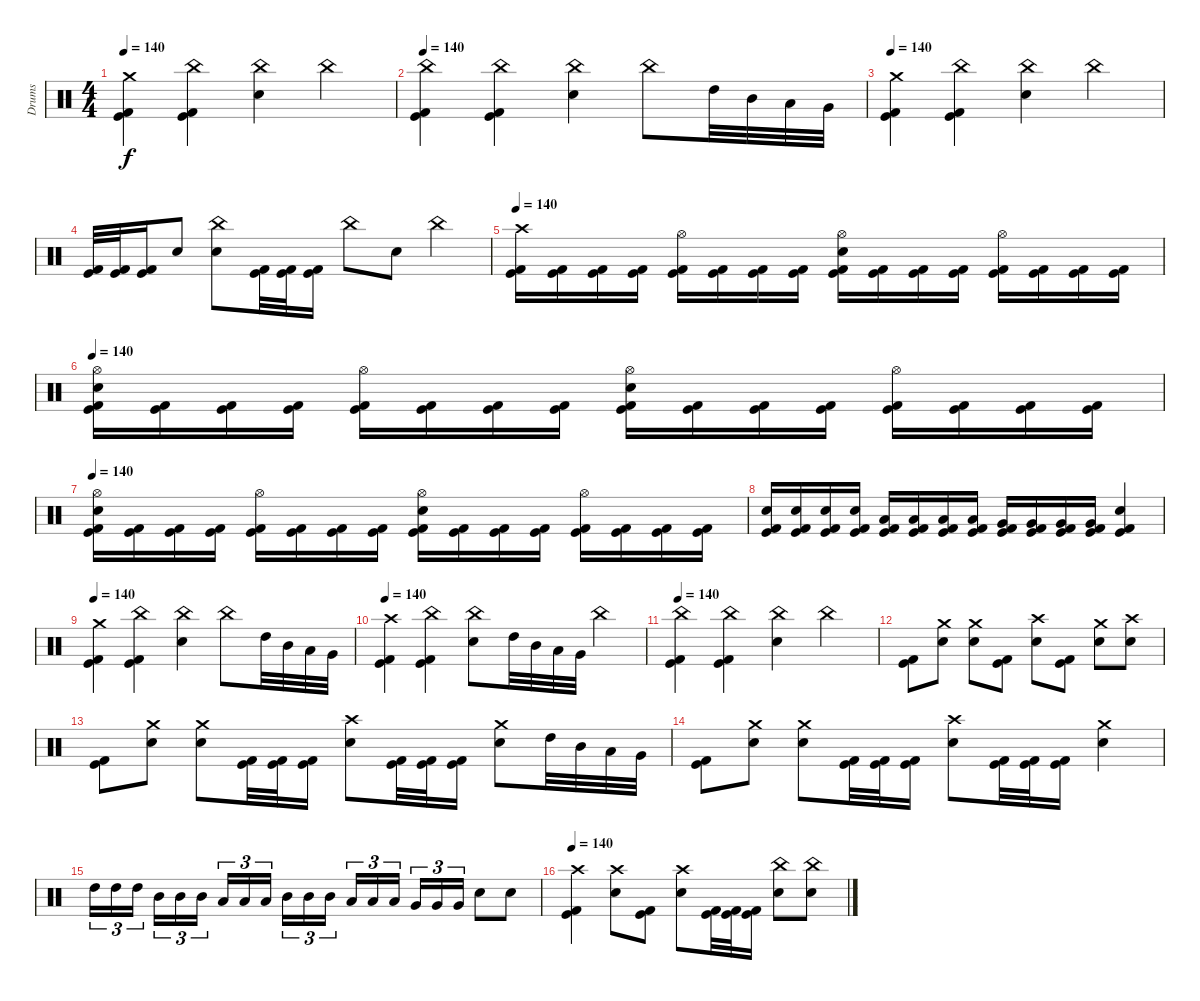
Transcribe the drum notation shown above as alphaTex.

\track ("Drums" "Drums") {instrument percussion}
\staff {score}
\articulation defaults
\ts (4 4)
\tempo 140
\clef neutral
\ks c
("Crash medium (hit)" "Kick (hit)" "Kick (hit) 2").4{dy f} ("China (hit)" "Kick (hit)" "Kick (hit) 2").4 ("China (hit)" "Electric Snare (hit)").4 "China (hit)".4 |
\tempo 140
("China (hit)" "Kick (hit)" "Kick (hit) 2").4 ("China (hit)" "Kick (hit)" "Kick (hit) 2").4 ("China (hit)" "Electric Snare (hit)").4 "China (hit)".8 "High Tom (hit)".32 "Mid Tom (hit)".32 "Low Tom (hit)".32 "Very Low Tom (hit)".32 |
\tempo 140
("Crash medium (hit)" "Kick (hit)" "Kick (hit) 2").4 ("China (hit)" "Kick (hit)" "Kick (hit) 2").4 ("China (hit)" "Electric Snare (hit)").4 "China (hit)".4 |
("Kick (hit)" "Kick (hit) 2").32 ("Kick (hit)" "Kick (hit) 2").32 ("Kick (hit)" "Kick (hit) 2").16 "Electric Snare (hit)".8 ("China (hit)" "Electric Snare (hit)").8 ("Kick (hit)" "Kick (hit) 2").32 ("Kick (hit)" "Kick (hit) 2").32 ("Kick (hit)" "Kick (hit) 2").16 "China (hit)".8 "Electric Snare (hit)".8 "China (hit)".4 |
\tempo 140
("Crash high (hit)" "Kick (hit)" "Kick (hit) 2").16 ("Kick (hit)" "Kick (hit) 2").16 ("Kick (hit)" "Kick (hit) 2").16 ("Kick (hit)" "Kick (hit) 2").16 ("Hi-Hat (open)" "Kick (hit)" "Kick (hit) 2").16 ("Kick (hit)" "Kick (hit) 2").16 ("Kick (hit)" "Kick (hit) 2").16 ("Kick (hit)" "Kick (hit) 2").16 ("Hi-Hat (open)" "Electric Snare (hit)" "Kick (hit)" "Kick (hit) 2").16 ("Kick (hit)" "Kick (hit) 2").16 ("Kick (hit)" "Kick (hit) 2").16 ("Kick (hit)" "Kick (hit) 2").16 ("Hi-Hat (open)" "Kick (hit)" "Kick (hit) 2").16 ("Kick (hit)" "Kick (hit) 2").16 ("Kick (hit)" "Kick (hit) 2").16 ("Kick (hit)" "Kick (hit) 2").16 |
\tempo 140
("Hi-Hat (open)" "Electric Snare (hit)" "Kick (hit)" "Kick (hit) 2").16 ("Kick (hit)" "Kick (hit) 2").16 ("Kick (hit)" "Kick (hit) 2").16 ("Kick (hit)" "Kick (hit) 2").16 ("Hi-Hat (open)" "Kick (hit)" "Kick (hit) 2").16 ("Kick (hit)" "Kick (hit) 2").16 ("Kick (hit)" "Kick (hit) 2").16 ("Kick (hit)" "Kick (hit) 2").16 ("Hi-Hat (open)" "Electric Snare (hit)" "Kick (hit)" "Kick (hit) 2").16 ("Kick (hit)" "Kick (hit) 2").16 ("Kick (hit)" "Kick (hit) 2").16 ("Kick (hit)" "Kick (hit) 2").16 ("Hi-Hat (open)" "Kick (hit)" "Kick (hit) 2").16 ("Kick (hit)" "Kick (hit) 2").16 ("Kick (hit)" "Kick (hit) 2").16 ("Kick (hit)" "Kick (hit) 2").16 |
\tempo 140
("Hi-Hat (open)" "Electric Snare (hit)" "Kick (hit)" "Kick (hit) 2").16 ("Kick (hit)" "Kick (hit) 2").16 ("Kick (hit)" "Kick (hit) 2").16 ("Kick (hit)" "Kick (hit) 2").16 ("Hi-Hat (open)" "Kick (hit)" "Kick (hit) 2").16 ("Kick (hit)" "Kick (hit) 2").16 ("Kick (hit)" "Kick (hit) 2").16 ("Kick (hit)" "Kick (hit) 2").16 ("Hi-Hat (open)" "Electric Snare (hit)" "Kick (hit)" "Kick (hit) 2").16 ("Kick (hit)" "Kick (hit) 2").16 ("Kick (hit)" "Kick (hit) 2").16 ("Kick (hit)" "Kick (hit) 2").16 ("Hi-Hat (open)" "Kick (hit)" "Kick (hit) 2").16 ("Kick (hit)" "Kick (hit) 2").16 ("Kick (hit)" "Kick (hit) 2").16 ("Kick (hit)" "Kick (hit) 2").16 |
("Electric Snare (hit)" "Kick (hit)" "Kick (hit) 2").16 ("Electric Snare (hit)" "Kick (hit)" "Kick (hit) 2").16 ("Electric Snare (hit)" "Kick (hit)" "Kick (hit) 2").16 ("Electric Snare (hit)" "Kick (hit)" "Kick (hit) 2").16 ("Low Tom (hit)" "Kick (hit)" "Kick (hit) 2").16 ("Low Tom (hit)" "Kick (hit)" "Kick (hit) 2").16 ("Low Tom (hit)" "Kick (hit)" "Kick (hit) 2").16 ("Low Tom (hit)" "Kick (hit)" "Kick (hit) 2").16 ("Very Low Tom (hit)" "Kick (hit)" "Kick (hit) 2").16 ("Very Low Tom (hit)" "Kick (hit)" "Kick (hit) 2").16 ("Very Low Tom (hit)" "Kick (hit)" "Kick (hit) 2").16 ("Very Low Tom (hit)" "Kick (hit)" "Kick (hit) 2").16 ("Electric Snare (hit)" "Kick (hit)" "Kick (hit) 2").4 |
\tempo 140
("Crash medium (hit)" "Kick (hit)" "Kick (hit) 2").4 ("China (hit)" "Kick (hit)" "Kick (hit) 2").4 ("China (hit)" "Electric Snare (hit)").4 "China (hit)".8 "High Tom (hit)".32 "Mid Tom (hit)".32 "Low Tom (hit)".32 "Very Low Tom (hit)".32 |
\tempo 140
("Crash high (hit)" "Kick (hit)" "Kick (hit) 2").4 ("China (hit)" "Kick (hit)" "Kick (hit) 2").4 ("China (hit)" "Electric Snare (hit)").8 "High Tom (hit)".32 "Mid Tom (hit)".32 "Low Tom (hit)".32 "Very Low Tom (hit)".32 "China (hit)".4 |
\tempo 140
("China (hit)" "Kick (hit)" "Kick (hit) 2").4 ("China (hit)" "Kick (hit)" "Kick (hit) 2").4 ("China (hit)" "Electric Snare (hit)").4 "China (hit)".4 |
("Kick (hit)" "Kick (hit) 2").8 ("Crash medium (hit)" "Electric Snare (hit)").8 ("Crash medium (hit)" "Electric Snare (hit)").8 ("Kick (hit)" "Kick (hit) 2").8 ("Crash high (hit)" "Electric Snare (hit)").8 ("Kick (hit)" "Kick (hit) 2").8 ("Crash medium (hit)" "Electric Snare (hit)").8 ("Crash high (hit)" "Electric Snare (hit)").8 |
("Kick (hit)" "Kick (hit) 2").8 ("Crash medium (hit)" "Electric Snare (hit)").8 ("Crash medium (hit)" "Electric Snare (hit)").8 ("Kick (hit)" "Kick (hit) 2").32 ("Kick (hit)" "Kick (hit) 2").32 ("Kick (hit)" "Kick (hit) 2").16 ("Crash high (hit)" "Electric Snare (hit)").8 ("Kick (hit)" "Kick (hit) 2").32 ("Kick (hit)" "Kick (hit) 2").32 ("Kick (hit)" "Kick (hit) 2").16 ("Crash medium (hit)" "Electric Snare (hit)").8 "High Tom (hit)".32 "Mid Tom (hit)".32 "Low Tom (hit)".32 "Very Low Tom (hit)".32 |
("Kick (hit)" "Kick (hit) 2").8 ("Crash medium (hit)" "Electric Snare (hit)").8 ("Crash medium (hit)" "Electric Snare (hit)").8 ("Kick (hit)" "Kick (hit) 2").32 ("Kick (hit)" "Kick (hit) 2").32 ("Kick (hit)" "Kick (hit) 2").16 ("Crash high (hit)" "Electric Snare (hit)").8 ("Kick (hit)" "Kick (hit) 2").32 ("Kick (hit)" "Kick (hit) 2").32 ("Kick (hit)" "Kick (hit) 2").16 ("Crash medium (hit)" "Electric Snare (hit)").4 |
"High Tom (hit)".16{tu (3 2)} "High Tom (hit)".16{tu (3 2)} "High Tom (hit)".16{tu (3 2)} "Mid Tom (hit)".16{tu (3 2)} "Mid Tom (hit)".16{tu (3 2)} "Mid Tom (hit)".16{tu (3 2)} "Low Tom (hit)".16{tu (3 2)} "Low Tom (hit)".16{tu (3 2)} "Low Tom (hit)".16{tu (3 2)} "Mid Tom (hit)".16{tu (3 2)} "Mid Tom (hit)".16{tu (3 2)} "Mid Tom (hit)".16{tu (3 2)} "Low Tom (hit)".16{tu (3 2)} "Low Tom (hit)".16{tu (3 2)} "Low Tom (hit)".16{tu (3 2)} "Very Low Tom (hit)".16{tu (3 2)} "Very Low Tom (hit)".16{tu (3 2)} "Very Low Tom (hit)".16{tu (3 2)} "Electric Snare (hit)".8 "Electric Snare (hit)".8 |
\tempo 140
("Crash high (hit)" "Kick (hit)" "Kick (hit) 2").4 ("Crash high (hit)" "Electric Snare (hit)").8 ("Kick (hit)" "Kick (hit) 2").8 ("Crash high (hit)" "Electric Snare (hit)").8 ("Kick (hit)" "Kick (hit) 2").32 ("Kick (hit)" "Kick (hit) 2").32 ("Kick (hit)" "Kick (hit) 2").16 ("China (hit)" "Electric Snare (hit)").8 ("China (hit)" "Electric Snare (hit)").8
